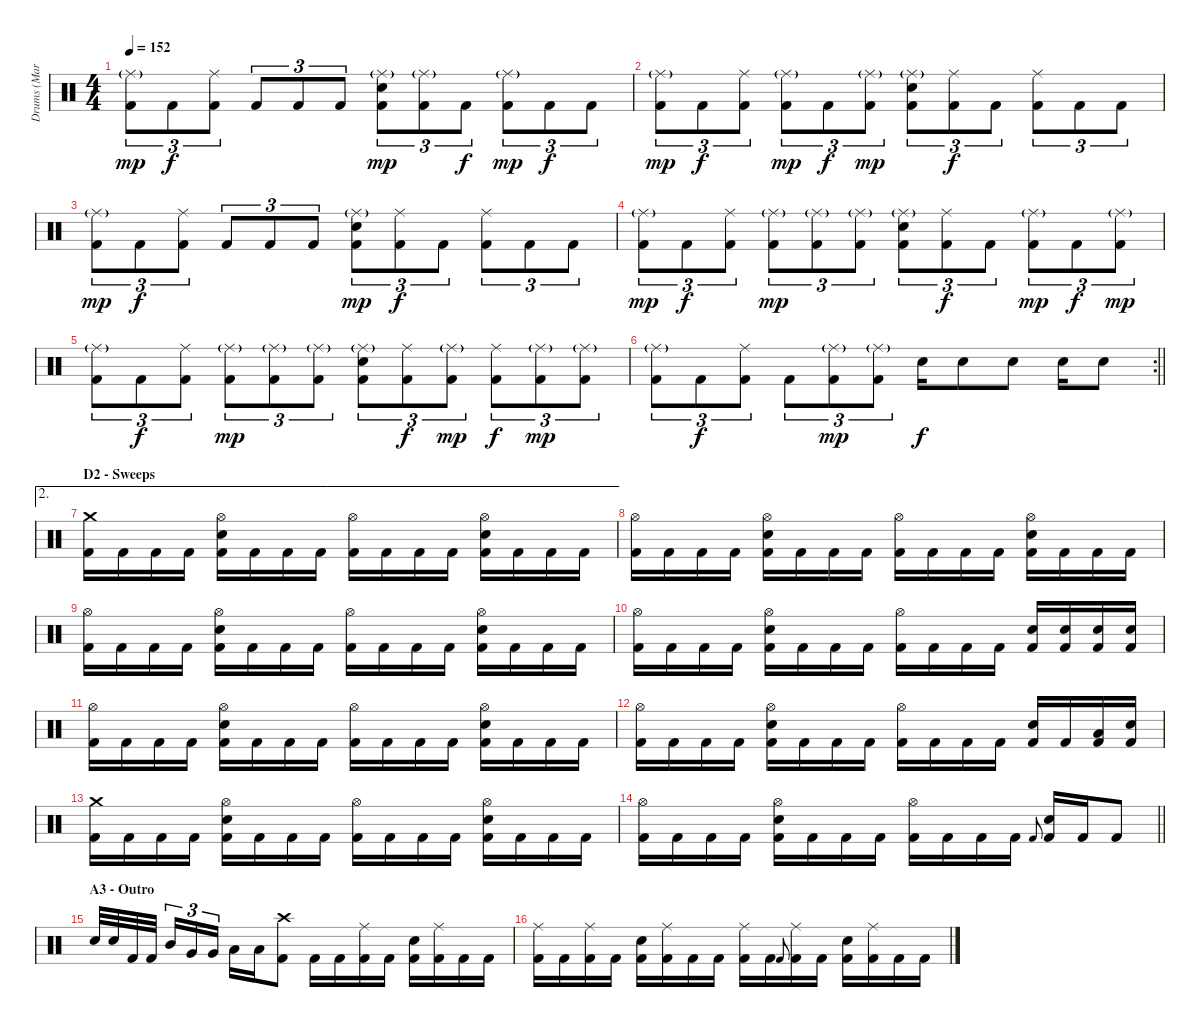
\track ("Drums (Mark Arrington)" "Drums (Mar") {instrument percussion}
\staff {score}
\articulation defaults
\ts (4 4)
\tempo 152
\clef neutral
\ks aminor
("Ride (middle)"{g} "Kick (hit) 2").8{tu (3 2) dy mp} "Kick (hit) 2".8{tu (3 2) dy f} ("Ride (middle)" "Kick (hit) 2").8{tu (3 2)} "Kick (hit) 2".8{tu (3 2)} "Kick (hit) 2".8{tu (3 2)} "Kick (hit) 2".8{tu (3 2)} ("Ride (middle)"{g} "Electric Snare (hit)" "Kick (hit) 2").8{tu (3 2) dy mp} ("Ride (middle)"{g} "Kick (hit) 2").8{tu (3 2)} "Kick (hit) 2".8{tu (3 2) dy f} ("Ride (middle)"{g} "Kick (hit) 2").8{tu (3 2) dy mp} "Kick (hit) 2".8{tu (3 2) dy f} "Kick (hit) 2".8{tu (3 2)} |
("Ride (middle)"{g} "Kick (hit) 2").8{tu (3 2) dy mp} "Kick (hit) 2".8{tu (3 2) dy f} ("Ride (middle)" "Kick (hit) 2").8{tu (3 2)} ("Ride (middle)"{g} "Kick (hit) 2").8{tu (3 2) dy mp} "Kick (hit) 2".8{tu (3 2) dy f} ("Ride (middle)"{g} "Kick (hit) 2").8{tu (3 2) dy mp} ("Ride (middle)"{g} "Electric Snare (hit)" "Kick (hit) 2").8{tu (3 2)} ("Ride (middle)" "Kick (hit) 2").8{tu (3 2) dy f} "Kick (hit) 2".8{tu (3 2)} ("Ride (middle)" "Kick (hit) 2").8{tu (3 2)} "Kick (hit) 2".8{tu (3 2)} "Kick (hit) 2".8{tu (3 2)} |
("Ride (middle)"{g} "Kick (hit) 2").8{tu (3 2) dy mp} "Kick (hit) 2".8{tu (3 2) dy f} ("Ride (middle)" "Kick (hit) 2").8{tu (3 2)} "Kick (hit) 2".8{tu (3 2)} "Kick (hit) 2".8{tu (3 2)} "Kick (hit) 2".8{tu (3 2)} ("Ride (middle)"{g} "Electric Snare (hit)" "Kick (hit) 2").8{tu (3 2) dy mp} ("Ride (middle)" "Kick (hit) 2").8{tu (3 2) dy f} "Kick (hit) 2".8{tu (3 2)} ("Ride (middle)" "Kick (hit) 2").8{tu (3 2)} "Kick (hit) 2".8{tu (3 2)} "Kick (hit) 2".8{tu (3 2)} |
("Ride (middle)"{g} "Kick (hit) 2").8{tu (3 2) dy mp} "Kick (hit) 2".8{tu (3 2) dy f} ("Ride (middle)" "Kick (hit) 2").8{tu (3 2)} ("Ride (middle)"{g} "Kick (hit) 2").8{tu (3 2) dy mp} ("Ride (middle)"{g} "Kick (hit) 2").8{tu (3 2)} ("Ride (middle)"{g} "Kick (hit) 2").8{tu (3 2)} ("Ride (middle)"{g} "Electric Snare (hit)" "Kick (hit) 2").8{tu (3 2)} ("Ride (middle)" "Kick (hit) 2").8{tu (3 2) dy f} "Kick (hit) 2".8{tu (3 2)} ("Ride (middle)"{g} "Kick (hit) 2").8{tu (3 2) dy mp} "Kick (hit) 2".8{tu (3 2) dy f} ("Ride (middle)"{g} "Kick (hit) 2").8{tu (3 2) dy mp} |
("Ride (middle)"{g} "Kick (hit) 2").8{tu (3 2)} "Kick (hit) 2".8{tu (3 2) dy f} ("Ride (middle)" "Kick (hit) 2").8{tu (3 2)} ("Ride (middle)"{g} "Kick (hit) 2").8{tu (3 2) dy mp} ("Ride (middle)"{g} "Kick (hit) 2").8{tu (3 2)} ("Ride (middle)"{g} "Kick (hit) 2").8{tu (3 2)} ("Ride (middle)"{g} "Electric Snare (hit)" "Kick (hit) 2").8{tu (3 2)} ("Ride (middle)" "Kick (hit) 2").8{tu (3 2) dy f} ("Ride (middle)"{g} "Kick (hit) 2").8{tu (3 2) dy mp} ("Ride (middle)" "Kick (hit) 2").8{tu (3 2) dy f} ("Ride (middle)"{g} "Kick (hit) 2").8{tu (3 2) dy mp} ("Ride (middle)"{g} "Kick (hit) 2").8{tu (3 2)} |
\rc 2
\barLineRight lightlight
("Ride (middle)"{g} "Kick (hit) 2").8{tu (3 2)} "Kick (hit) 2".8{tu (3 2) dy f} ("Ride (middle)" "Kick (hit) 2").8{tu (3 2)} "Kick (hit) 2".8{tu (3 2)} ("Ride (middle)"{g} "Kick (hit) 2").8{tu (3 2) dy mp} ("Ride (middle)"{g} "Kick (hit) 2").8{tu (3 2)} "Electric Snare (hit)".16{dy f} "Electric Snare (hit)".8 "Electric Snare (hit)".8 "Electric Snare (hit)".16 "Electric Snare (hit)".8 |
\ae 2
\section ("" "D2 - Sweeps")
("Crash medium (hit)" "Kick (hit) 2").16 "Kick (hit) 2".16 "Kick (hit) 2".16 "Kick (hit) 2".16 ("Hi-Hat (open)" "Electric Snare (hit)" "Kick (hit) 2").16 "Kick (hit) 2".16 "Kick (hit) 2".16 "Kick (hit) 2".16 ("Hi-Hat (open)" "Kick (hit) 2").16 "Kick (hit) 2".16 "Kick (hit) 2".16 "Kick (hit) 2".16 ("Hi-Hat (open)" "Electric Snare (hit)" "Kick (hit) 2").16 "Kick (hit) 2".16 "Kick (hit) 2".16 "Kick (hit) 2".16 |
("Hi-Hat (open)" "Kick (hit) 2").16 "Kick (hit) 2".16 "Kick (hit) 2".16 "Kick (hit) 2".16 ("Hi-Hat (open)" "Electric Snare (hit)" "Kick (hit) 2").16 "Kick (hit) 2".16 "Kick (hit) 2".16 "Kick (hit) 2".16 ("Hi-Hat (open)" "Kick (hit) 2").16 "Kick (hit) 2".16 "Kick (hit) 2".16 "Kick (hit) 2".16 ("Hi-Hat (open)" "Electric Snare (hit)" "Kick (hit) 2").16 "Kick (hit) 2".16 "Kick (hit) 2".16 "Kick (hit) 2".16 |
("Hi-Hat (open)" "Kick (hit) 2").16 "Kick (hit) 2".16 "Kick (hit) 2".16 "Kick (hit) 2".16 ("Hi-Hat (open)" "Electric Snare (hit)" "Kick (hit) 2").16 "Kick (hit) 2".16 "Kick (hit) 2".16 "Kick (hit) 2".16 ("Hi-Hat (open)" "Kick (hit) 2").16 "Kick (hit) 2".16 "Kick (hit) 2".16 "Kick (hit) 2".16 ("Hi-Hat (open)" "Electric Snare (hit)" "Kick (hit) 2").16 "Kick (hit) 2".16 "Kick (hit) 2".16 "Kick (hit) 2".16 |
("Hi-Hat (open)" "Kick (hit) 2").16 "Kick (hit) 2".16 "Kick (hit) 2".16 "Kick (hit) 2".16 ("Hi-Hat (open)" "Electric Snare (hit)" "Kick (hit) 2").16 "Kick (hit) 2".16 "Kick (hit) 2".16 "Kick (hit) 2".16 ("Hi-Hat (open)" "Kick (hit) 2").16 "Kick (hit) 2".16 "Kick (hit) 2".16 "Kick (hit) 2".16 ("Electric Snare (hit)" "Kick (hit) 2").16 ("Electric Snare (hit)" "Kick (hit) 2").16 ("Electric Snare (hit)" "Kick (hit) 2").16 ("Electric Snare (hit)" "Kick (hit) 2").16 |
("Hi-Hat (open)" "Kick (hit) 2").16 "Kick (hit) 2".16 "Kick (hit) 2".16 "Kick (hit) 2".16 ("Hi-Hat (open)" "Electric Snare (hit)" "Kick (hit) 2").16 "Kick (hit) 2".16 "Kick (hit) 2".16 "Kick (hit) 2".16 ("Hi-Hat (open)" "Kick (hit) 2").16 "Kick (hit) 2".16 "Kick (hit) 2".16 "Kick (hit) 2".16 ("Hi-Hat (open)" "Electric Snare (hit)" "Kick (hit) 2").16 "Kick (hit) 2".16 "Kick (hit) 2".16 "Kick (hit) 2".16 |
("Hi-Hat (open)" "Kick (hit) 2").16 "Kick (hit) 2".16 "Kick (hit) 2".16 "Kick (hit) 2".16 ("Hi-Hat (open)" "Electric Snare (hit)" "Kick (hit) 2").16 "Kick (hit) 2".16 "Kick (hit) 2".16 "Kick (hit) 2".16 ("Hi-Hat (open)" "Kick (hit) 2").16 "Kick (hit) 2".16 "Kick (hit) 2".16 "Kick (hit) 2".16 ("Electric Snare (hit)" "Kick (hit) 2").16 "Kick (hit) 2".16 ("Low Floor Tom (hit)" "Kick (hit) 2").16 ("Electric Snare (hit)" "Kick (hit) 2").16 |
("Crash medium (hit)" "Kick (hit) 2").16 "Kick (hit) 2".16 "Kick (hit) 2".16 "Kick (hit) 2".16 ("Hi-Hat (open)" "Electric Snare (hit)" "Kick (hit) 2").16 "Kick (hit) 2".16 "Kick (hit) 2".16 "Kick (hit) 2".16 ("Hi-Hat (open)" "Kick (hit) 2").16 "Kick (hit) 2".16 "Kick (hit) 2".16 "Kick (hit) 2".16 ("Hi-Hat (open)" "Electric Snare (hit)" "Kick (hit) 2").16 "Kick (hit) 2".16 "Kick (hit) 2".16 "Kick (hit) 2".16 |
\barLineRight lightlight
("Hi-Hat (open)" "Kick (hit) 2").16 "Kick (hit) 2".16 "Kick (hit) 2".16 "Kick (hit) 2".16 ("Hi-Hat (open)" "Electric Snare (hit)" "Kick (hit) 2").16 "Kick (hit) 2".16 "Kick (hit) 2".16 "Kick (hit) 2".16 ("Hi-Hat (open)" "Kick (hit) 2").16 "Kick (hit) 2".16 "Kick (hit) 2".16 "Kick (hit) 2".16 "Kick (hit) 2".8{gr onbeat} ("Electric Snare (hit)" "Kick (hit) 2").16 "Kick (hit) 2".16 "Kick (hit) 2".8 |
\section ("" "A3 - Outro")
"Electric Snare (hit)".32 "Electric Snare (hit)".32 "Kick (hit) 2".32 "Kick (hit) 2".32{beam splitsecondary} "Mid Tom (hit)".16{tu (3 2)} "Very Low Tom (hit)".16{tu (3 2)} "Very Low Tom (hit)".16{tu (3 2)} "Low Floor Tom (hit)".16 "Low Floor Tom (hit)".16 ("Crash high (hit)" "Kick (hit) 2").8 "Kick (hit) 2".16 "Kick (hit) 2".16 ("Ride (middle)" "Kick (hit) 2").16 "Kick (hit) 2".16 ("Electric Snare (hit)" "Kick (hit) 2").16 ("Ride (middle)" "Kick (hit) 2").16 "Kick (hit) 2".16 "Kick (hit) 2".16 |
("Ride (middle)" "Kick (hit) 2").16 "Kick (hit) 2".16 ("Ride (middle)" "Kick (hit) 2").16 "Kick (hit) 2".16 ("Electric Snare (hit)" "Kick (hit) 2").16 ("Ride (middle)" "Kick (hit) 2").16 "Kick (hit) 2".16 "Kick (hit) 2".16 ("Ride (middle)" "Kick (hit) 2").16 "Kick (hit) 2".16 "Kick (hit) 2".8{gr onbeat} ("Ride (middle)" "Kick (hit) 2").16 "Kick (hit) 2".16 ("Electric Snare (hit)" "Kick (hit) 2").16 ("Ride (middle)" "Kick (hit) 2").16 "Kick (hit) 2".16 "Kick (hit) 2".16
